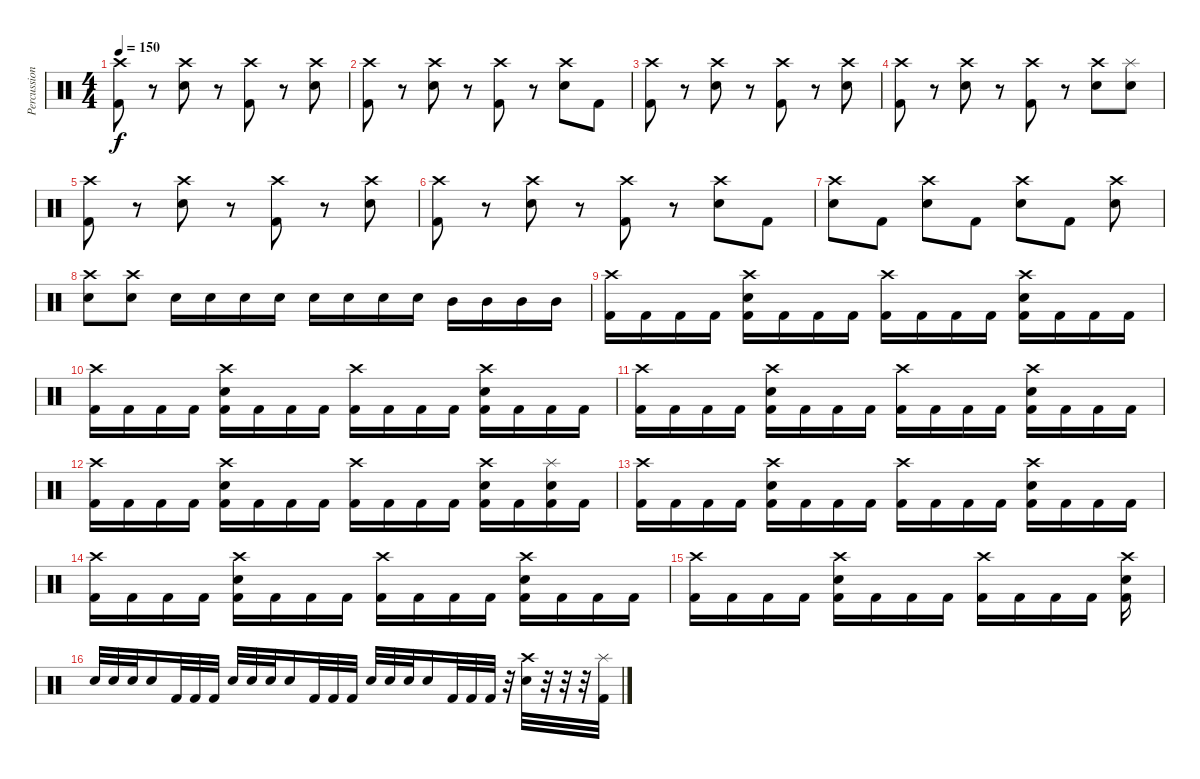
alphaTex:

\track ("Percussion" "Percussion") {instrument percussion}
\staff {score}
\articulation defaults
\ts (4 4)
\tempo 150
\clef neutral
\ks c
("Crash high (hit)" "Kick (hit) 2").8{dy f} r.8 ("Crash high (hit)" "Snare (hit) 2").8 r.8 ("Crash high (hit)" "Kick (hit) 2").8 r.8 ("Crash high (hit)" "Snare (hit) 2").8 |
("Crash high (hit)" "Kick (hit) 2").8 r.8 ("Crash high (hit)" "Snare (hit) 2").8 r.8 ("Crash high (hit)" "Kick (hit) 2").8 r.8 ("Crash high (hit)" "Snare (hit) 2").8 "Kick (hit) 2".8 |
("Crash high (hit)" "Kick (hit) 2").8 r.8 ("Crash high (hit)" "Snare (hit) 2").8 r.8 ("Crash high (hit)" "Kick (hit) 2").8 r.8 ("Crash high (hit)" "Snare (hit) 2").8 |
("Crash high (hit)" "Kick (hit) 2").8 r.8 ("Crash high (hit)" "Snare (hit) 2").8 r.8 ("Crash high (hit)" "Kick (hit) 2").8 r.8 ("Crash high (hit)" "Snare (hit) 2").8 ("Splash (hit)" "Snare (hit) 2").8 |
("Crash high (hit)" "Kick (hit) 2").8 r.8 ("Crash high (hit)" "Snare (hit) 2").8 r.8 ("Crash high (hit)" "Kick (hit) 2").8 r.8 ("Crash high (hit)" "Snare (hit) 2").8 |
("Crash high (hit)" "Kick (hit) 2").8 r.8 ("Crash high (hit)" "Snare (hit) 2").8 r.8 ("Crash high (hit)" "Kick (hit) 2").8 r.8 ("Crash high (hit)" "Snare (hit) 2").8 "Kick (hit) 2".8 |
("Crash high (hit)" "Snare (hit) 2").8 "Kick (hit) 2".8 ("Crash high (hit)" "Snare (hit) 2").8 "Kick (hit) 2".8 ("Crash high (hit)" "Snare (hit) 2").8 "Kick (hit) 2".8 ("Crash high (hit)" "Snare (hit) 2").8 |
("Crash high (hit)" "Snare (hit) 2").8 ("Crash high (hit)" "Snare (hit) 2").8 "Snare (hit) 2".16 "Snare (hit) 2".16 "Snare (hit) 2".16 "Snare (hit) 2".16 "Snare (hit) 2".16 "Snare (hit) 2".16 "Snare (hit) 2".16 "Snare (hit) 2".16 "Mid Tom (hit)".16 "Mid Tom (hit)".16 "Mid Tom (hit)".16 "Mid Tom (hit)".16 |
("Crash high (hit)" "Kick (hit) 2").16 "Kick (hit) 2".16 "Kick (hit) 2".16 "Kick (hit) 2".16 ("Crash high (hit)" "Snare (hit) 2" "Kick (hit) 2").16 "Kick (hit) 2".16 "Kick (hit) 2".16 "Kick (hit) 2".16 ("Crash high (hit)" "Kick (hit) 2").16 "Kick (hit) 2".16 "Kick (hit) 2".16 "Kick (hit) 2".16 ("Crash high (hit)" "Snare (hit) 2" "Kick (hit) 2").16 "Kick (hit) 2".16 "Kick (hit) 2".16 "Kick (hit) 2".16 |
("Crash high (hit)" "Kick (hit) 2").16 "Kick (hit) 2".16 "Kick (hit) 2".16 "Kick (hit) 2".16 ("Crash high (hit)" "Snare (hit) 2" "Kick (hit) 2").16 "Kick (hit) 2".16 "Kick (hit) 2".16 "Kick (hit) 2".16 ("Crash high (hit)" "Kick (hit) 2").16 "Kick (hit) 2".16 "Kick (hit) 2".16 "Kick (hit) 2".16 ("Crash high (hit)" "Snare (hit) 2" "Kick (hit) 2").16 "Kick (hit) 2".16 "Kick (hit) 2".16 "Kick (hit) 2".16 |
("Crash high (hit)" "Kick (hit) 2").16 "Kick (hit) 2".16 "Kick (hit) 2".16 "Kick (hit) 2".16 ("Crash high (hit)" "Snare (hit) 2" "Kick (hit) 2").16 "Kick (hit) 2".16 "Kick (hit) 2".16 "Kick (hit) 2".16 ("Crash high (hit)" "Kick (hit) 2").16 "Kick (hit) 2".16 "Kick (hit) 2".16 "Kick (hit) 2".16 ("Crash high (hit)" "Snare (hit) 2" "Kick (hit) 2").16 "Kick (hit) 2".16 "Kick (hit) 2".16 "Kick (hit) 2".16 |
("Crash high (hit)" "Kick (hit) 2").16 "Kick (hit) 2".16 "Kick (hit) 2".16 "Kick (hit) 2".16 ("Crash high (hit)" "Snare (hit) 2" "Kick (hit) 2").16 "Kick (hit) 2".16 "Kick (hit) 2".16 "Kick (hit) 2".16 ("Crash high (hit)" "Kick (hit) 2").16 "Kick (hit) 2".16 "Kick (hit) 2".16 "Kick (hit) 2".16 ("Crash high (hit)" "Snare (hit) 2" "Kick (hit) 2").16 "Kick (hit) 2".16 ("Splash (hit)" "Snare (hit) 2" "Kick (hit) 2").16 "Kick (hit) 2".16 |
("Crash high (hit)" "Kick (hit) 2").16 "Kick (hit) 2".16 "Kick (hit) 2".16 "Kick (hit) 2".16 ("Crash high (hit)" "Snare (hit) 2" "Kick (hit) 2").16 "Kick (hit) 2".16 "Kick (hit) 2".16 "Kick (hit) 2".16 ("Crash high (hit)" "Kick (hit) 2").16 "Kick (hit) 2".16 "Kick (hit) 2".16 "Kick (hit) 2".16 ("Crash high (hit)" "Snare (hit) 2" "Kick (hit) 2").16 "Kick (hit) 2".16 "Kick (hit) 2".16 "Kick (hit) 2".16 |
("Crash high (hit)" "Kick (hit) 2").16 "Kick (hit) 2".16 "Kick (hit) 2".16 "Kick (hit) 2".16 ("Crash high (hit)" "Snare (hit) 2" "Kick (hit) 2").16 "Kick (hit) 2".16 "Kick (hit) 2".16 "Kick (hit) 2".16 ("Crash high (hit)" "Kick (hit) 2").16 "Kick (hit) 2".16 "Kick (hit) 2".16 "Kick (hit) 2".16 ("Crash high (hit)" "Snare (hit) 2" "Kick (hit) 2").16 "Kick (hit) 2".16 "Kick (hit) 2".16 "Kick (hit) 2".16 |
("Crash high (hit)" "Kick (hit) 2").16 "Kick (hit) 2".16 "Kick (hit) 2".16 "Kick (hit) 2".16 ("Crash high (hit)" "Snare (hit) 2" "Kick (hit) 2").16 "Kick (hit) 2".16 "Kick (hit) 2".16 "Kick (hit) 2".16 ("Crash high (hit)" "Kick (hit) 2").16 "Kick (hit) 2".16 "Kick (hit) 2".16 "Kick (hit) 2".16 ("Crash high (hit)" "Snare (hit) 2" "Kick (hit) 2").16 |
"Snare (hit) 2".32 "Snare (hit) 2".32 "Snare (hit) 2".32 "Snare (hit) 2".16 "Kick (hit) 2".32 "Kick (hit) 2".32 "Kick (hit) 2".32 "Snare (hit) 2".32 "Snare (hit) 2".32 "Snare (hit) 2".32 "Snare (hit) 2".16 "Kick (hit) 2".32 "Kick (hit) 2".32 "Kick (hit) 2".32 "Snare (hit) 2".32 "Snare (hit) 2".32 "Snare (hit) 2".32 "Snare (hit) 2".16 "Kick (hit) 2".32 "Kick (hit) 2".32 "Kick (hit) 2".32 r.32 ("Crash high (hit)" "Snare (hit) 2").32 r.32 r.32 r.32 ("Splash (hit)" "Kick (hit) 2").32
